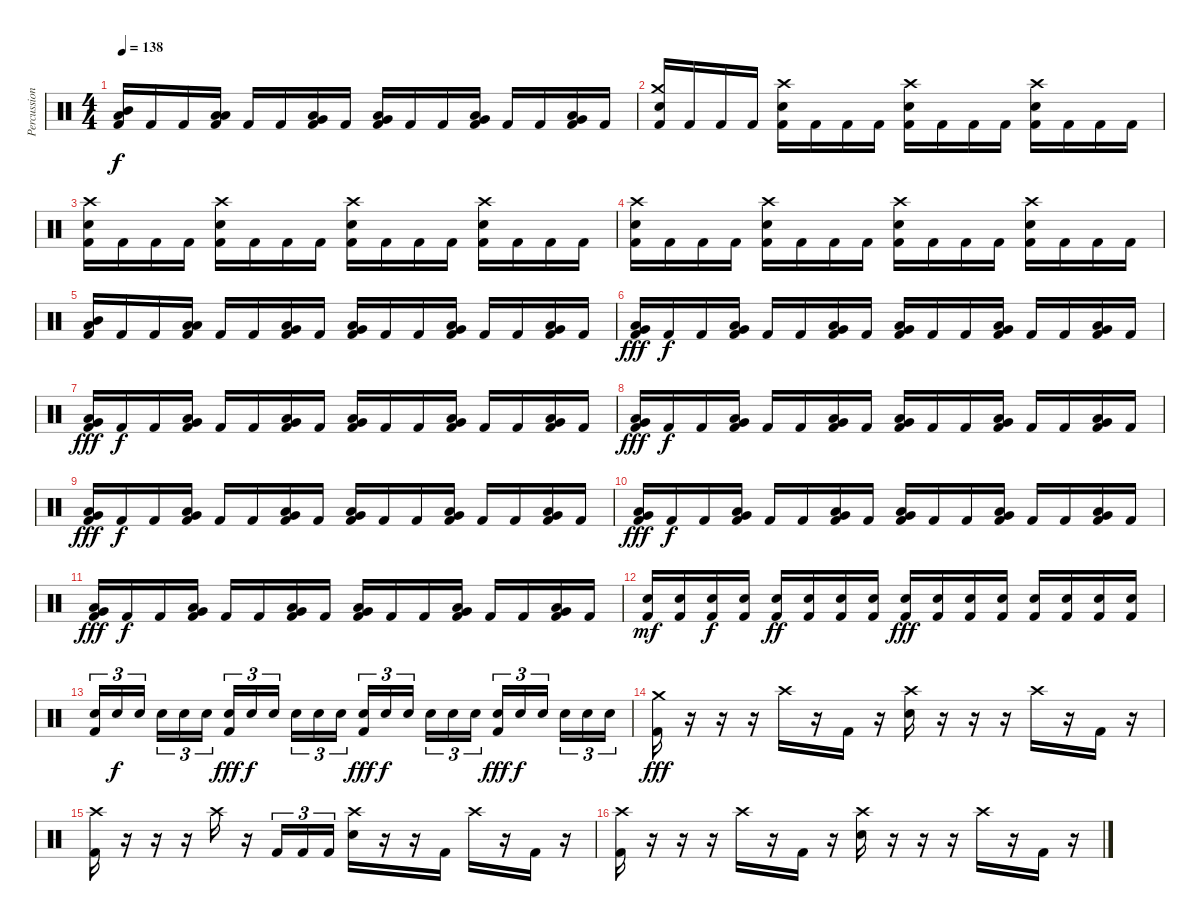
\track ("Percussion" "Percussion") {instrument percussion}
\staff {score}
\articulation defaults
\ts (4 4)
\tempo 138
\clef neutral
\ks c
("Mid Tom (hit)" "Low Floor Tom (hit)" "Kick (hit) 2").16{dy f} "Kick (hit) 2".16 "Kick (hit) 2".16 ("Low Tom (hit)" "Low Floor Tom (hit)" "Kick (hit) 2").16 "Kick (hit) 2".16 "Kick (hit) 2".16 ("Very Low Tom (hit)" "Low Floor Tom (hit)" "Kick (hit) 2").16 "Kick (hit) 2".16 ("Very Low Tom (hit)" "Low Floor Tom (hit)" "Kick (hit) 2").16 "Kick (hit) 2".16 "Kick (hit) 2".16 ("Very Low Tom (hit)" "Low Floor Tom (hit)" "Kick (hit) 2").16 "Kick (hit) 2".16 "Kick (hit) 2".16 ("Very Low Tom (hit)" "Low Floor Tom (hit)" "Kick (hit) 2").16 "Kick (hit) 2".16 |
("Crash medium (hit)" "Electric Snare (hit)" "Kick (hit) 2").16 "Kick (hit) 2".16 "Kick (hit) 2".16 "Kick (hit) 2".16 ("Crash high (hit)" "Electric Snare (hit)" "Kick (hit) 2").16 "Kick (hit) 2".16 "Kick (hit) 2".16 "Kick (hit) 2".16 ("Crash high (hit)" "Electric Snare (hit)" "Kick (hit) 2").16 "Kick (hit) 2".16 "Kick (hit) 2".16 "Kick (hit) 2".16 ("Crash high (hit)" "Electric Snare (hit)" "Kick (hit) 2").16 "Kick (hit) 2".16 "Kick (hit) 2".16 "Kick (hit) 2".16 |
("Crash high (hit)" "Electric Snare (hit)" "Kick (hit) 2").16 "Kick (hit) 2".16 "Kick (hit) 2".16 "Kick (hit) 2".16 ("Crash high (hit)" "Electric Snare (hit)" "Kick (hit) 2").16 "Kick (hit) 2".16 "Kick (hit) 2".16 "Kick (hit) 2".16 ("Crash high (hit)" "Electric Snare (hit)" "Kick (hit) 2").16 "Kick (hit) 2".16 "Kick (hit) 2".16 "Kick (hit) 2".16 ("Crash high (hit)" "Electric Snare (hit)" "Kick (hit) 2").16 "Kick (hit) 2".16 "Kick (hit) 2".16 "Kick (hit) 2".16 |
("Crash high (hit)" "Electric Snare (hit)" "Kick (hit) 2").16 "Kick (hit) 2".16 "Kick (hit) 2".16 "Kick (hit) 2".16 ("Crash high (hit)" "Electric Snare (hit)" "Kick (hit) 2").16 "Kick (hit) 2".16 "Kick (hit) 2".16 "Kick (hit) 2".16 ("Crash high (hit)" "Electric Snare (hit)" "Kick (hit) 2").16 "Kick (hit) 2".16 "Kick (hit) 2".16 "Kick (hit) 2".16 ("Crash high (hit)" "Electric Snare (hit)" "Kick (hit) 2").16 "Kick (hit) 2".16 "Kick (hit) 2".16 "Kick (hit) 2".16 |
("Mid Tom (hit)" "Low Floor Tom (hit)" "Kick (hit) 2").16 "Kick (hit) 2".16 "Kick (hit) 2".16 ("Low Tom (hit)" "Low Floor Tom (hit)" "Kick (hit) 2").16 "Kick (hit) 2".16 "Kick (hit) 2".16 ("Very Low Tom (hit)" "Low Floor Tom (hit)" "Kick (hit) 2").16 "Kick (hit) 2".16 ("Very Low Tom (hit)" "Low Floor Tom (hit)" "Kick (hit) 2").16 "Kick (hit) 2".16 "Kick (hit) 2".16 ("Very Low Tom (hit)" "Low Floor Tom (hit)" "Kick (hit) 2").16 "Kick (hit) 2".16 "Kick (hit) 2".16 ("Very Low Tom (hit)" "Low Floor Tom (hit)" "Kick (hit) 2").16 "Kick (hit) 2".16 |
("Very Low Tom (hit)" "Low Floor Tom (hit)" "Kick (hit) 2").16{dy fff} "Kick (hit) 2".16{dy f} "Kick (hit) 2".16 ("Very Low Tom (hit)" "Low Floor Tom (hit)" "Kick (hit) 2").16 "Kick (hit) 2".16 "Kick (hit) 2".16 ("Very Low Tom (hit)" "Low Floor Tom (hit)" "Kick (hit) 2").16 "Kick (hit) 2".16 ("Very Low Tom (hit)" "Low Floor Tom (hit)" "Kick (hit) 2").16 "Kick (hit) 2".16 "Kick (hit) 2".16 ("Very Low Tom (hit)" "Low Floor Tom (hit)" "Kick (hit) 2").16 "Kick (hit) 2".16 "Kick (hit) 2".16 ("Very Low Tom (hit)" "Low Floor Tom (hit)" "Kick (hit) 2").16 "Kick (hit) 2".16 |
("Very Low Tom (hit)" "Low Floor Tom (hit)" "Kick (hit) 2").16{dy fff} "Kick (hit) 2".16{dy f} "Kick (hit) 2".16 ("Very Low Tom (hit)" "Low Floor Tom (hit)" "Kick (hit) 2").16 "Kick (hit) 2".16 "Kick (hit) 2".16 ("Very Low Tom (hit)" "Low Floor Tom (hit)" "Kick (hit) 2").16 "Kick (hit) 2".16 ("Very Low Tom (hit)" "Low Floor Tom (hit)" "Kick (hit) 2").16 "Kick (hit) 2".16 "Kick (hit) 2".16 ("Very Low Tom (hit)" "Low Floor Tom (hit)" "Kick (hit) 2").16 "Kick (hit) 2".16 "Kick (hit) 2".16 ("Very Low Tom (hit)" "Low Floor Tom (hit)" "Kick (hit) 2").16 "Kick (hit) 2".16 |
("Very Low Tom (hit)" "Low Floor Tom (hit)" "Kick (hit) 2").16{dy fff} "Kick (hit) 2".16{dy f} "Kick (hit) 2".16 ("Very Low Tom (hit)" "Low Floor Tom (hit)" "Kick (hit) 2").16 "Kick (hit) 2".16 "Kick (hit) 2".16 ("Very Low Tom (hit)" "Low Floor Tom (hit)" "Kick (hit) 2").16 "Kick (hit) 2".16 ("Very Low Tom (hit)" "Low Floor Tom (hit)" "Kick (hit) 2").16 "Kick (hit) 2".16 "Kick (hit) 2".16 ("Very Low Tom (hit)" "Low Floor Tom (hit)" "Kick (hit) 2").16 "Kick (hit) 2".16 "Kick (hit) 2".16 ("Very Low Tom (hit)" "Low Floor Tom (hit)" "Kick (hit) 2").16 "Kick (hit) 2".16 |
("Very Low Tom (hit)" "Low Floor Tom (hit)" "Kick (hit) 2").16{dy fff} "Kick (hit) 2".16{dy f} "Kick (hit) 2".16 ("Very Low Tom (hit)" "Low Floor Tom (hit)" "Kick (hit) 2").16 "Kick (hit) 2".16 "Kick (hit) 2".16 ("Very Low Tom (hit)" "Low Floor Tom (hit)" "Kick (hit) 2").16 "Kick (hit) 2".16 ("Very Low Tom (hit)" "Low Floor Tom (hit)" "Kick (hit) 2").16 "Kick (hit) 2".16 "Kick (hit) 2".16 ("Very Low Tom (hit)" "Low Floor Tom (hit)" "Kick (hit) 2").16 "Kick (hit) 2".16 "Kick (hit) 2".16 ("Very Low Tom (hit)" "Low Floor Tom (hit)" "Kick (hit) 2").16 "Kick (hit) 2".16 |
("Very Low Tom (hit)" "Low Floor Tom (hit)" "Kick (hit) 2").16{dy fff} "Kick (hit) 2".16{dy f} "Kick (hit) 2".16 ("Very Low Tom (hit)" "Low Floor Tom (hit)" "Kick (hit) 2").16 "Kick (hit) 2".16 "Kick (hit) 2".16 ("Very Low Tom (hit)" "Low Floor Tom (hit)" "Kick (hit) 2").16 "Kick (hit) 2".16 ("Very Low Tom (hit)" "Low Floor Tom (hit)" "Kick (hit) 2").16 "Kick (hit) 2".16 "Kick (hit) 2".16 ("Very Low Tom (hit)" "Low Floor Tom (hit)" "Kick (hit) 2").16 "Kick (hit) 2".16 "Kick (hit) 2".16 ("Very Low Tom (hit)" "Low Floor Tom (hit)" "Kick (hit) 2").16 "Kick (hit) 2".16 |
("Very Low Tom (hit)" "Low Floor Tom (hit)" "Kick (hit) 2").16{dy fff} "Kick (hit) 2".16{dy f} "Kick (hit) 2".16 ("Very Low Tom (hit)" "Low Floor Tom (hit)" "Kick (hit) 2").16 "Kick (hit) 2".16 "Kick (hit) 2".16 ("Very Low Tom (hit)" "Low Floor Tom (hit)" "Kick (hit) 2").16 "Kick (hit) 2".16 ("Very Low Tom (hit)" "Low Floor Tom (hit)" "Kick (hit) 2").16 "Kick (hit) 2".16 "Kick (hit) 2".16 ("Very Low Tom (hit)" "Low Floor Tom (hit)" "Kick (hit) 2").16 "Kick (hit) 2".16 "Kick (hit) 2".16 ("Very Low Tom (hit)" "Low Floor Tom (hit)" "Kick (hit) 2").16 "Kick (hit) 2".16 |
("Electric Snare (hit)" "Kick (hit) 2").16{dy mf} ("Electric Snare (hit)" "Kick (hit) 2").16 ("Electric Snare (hit)" "Kick (hit) 2").16{dy f} ("Electric Snare (hit)" "Kick (hit) 2").16 ("Electric Snare (hit)" "Kick (hit) 2").16{dy ff} ("Electric Snare (hit)" "Kick (hit) 2").16 ("Electric Snare (hit)" "Kick (hit) 2").16 ("Electric Snare (hit)" "Kick (hit) 2").16 ("Electric Snare (hit)" "Kick (hit) 2").16{dy fff} ("Electric Snare (hit)" "Kick (hit) 2").16 ("Electric Snare (hit)" "Kick (hit) 2").16 ("Electric Snare (hit)" "Kick (hit) 2").16 ("Electric Snare (hit)" "Kick (hit) 2").16 ("Electric Snare (hit)" "Kick (hit) 2").16 ("Electric Snare (hit)" "Kick (hit) 2").16 ("Electric Snare (hit)" "Kick (hit) 2").16 |
("Electric Snare (hit)" "Kick (hit) 2").16{tu (3 2)} "Electric Snare (hit)".16{tu (3 2) dy f} "Electric Snare (hit)".16{tu (3 2) beam splitsecondary} "Electric Snare (hit)".16{tu (3 2)} "Electric Snare (hit)".16{tu (3 2)} "Electric Snare (hit)".16{tu (3 2)} ("Electric Snare (hit)" "Kick (hit) 2").16{tu (3 2) dy fff} "Electric Snare (hit)".16{tu (3 2) dy f} "Electric Snare (hit)".16{tu (3 2) beam splitsecondary} "Electric Snare (hit)".16{tu (3 2)} "Electric Snare (hit)".16{tu (3 2)} "Electric Snare (hit)".16{tu (3 2)} ("Electric Snare (hit)" "Kick (hit) 2").16{tu (3 2) dy fff} "Electric Snare (hit)".16{tu (3 2) dy f} "Electric Snare (hit)".16{tu (3 2) beam splitsecondary} "Electric Snare (hit)".16{tu (3 2)} "Electric Snare (hit)".16{tu (3 2)} "Electric Snare (hit)".16{tu (3 2)} ("Electric Snare (hit)" "Kick (hit) 2").16{tu (3 2) dy fff} "Electric Snare (hit)".16{tu (3 2) dy f} "Electric Snare (hit)".16{tu (3 2) beam splitsecondary} "Electric Snare (hit)".16{tu (3 2)} "Electric Snare (hit)".16{tu (3 2)} "Electric Snare (hit)".16{tu (3 2)} |
("Crash medium (hit)" "Kick (hit) 2").16{dy fff} r.16 r.16 r.16 "Crash high (hit)".16 r.16 "Kick (hit) 2".16 r.16 ("Crash high (hit)" "Electric Snare (hit)").16 r.16 r.16 r.16 "Crash high (hit)".16 r.16 "Kick (hit) 2".16 r.16 |
("Crash high (hit)" "Kick (hit) 2").16 r.16 r.16 r.16 "Crash high (hit)".16 r.16 "Kick (hit) 2".16{tu (3 2)} "Kick (hit) 2".16{tu (3 2)} "Kick (hit) 2".16{tu (3 2)} ("Crash high (hit)" "Electric Snare (hit)").16 r.16 r.16 "Kick (hit) 2".16 "Crash high (hit)".16 r.16 "Kick (hit) 2".16 r.16 |
("Crash high (hit)" "Kick (hit) 2").16 r.16 r.16 r.16 "Crash high (hit)".16 r.16 "Kick (hit) 2".16 r.16 ("Crash high (hit)" "Electric Snare (hit)").16 r.16 r.16 r.16 "Crash high (hit)".16 r.16 "Kick (hit) 2".16 r.16
